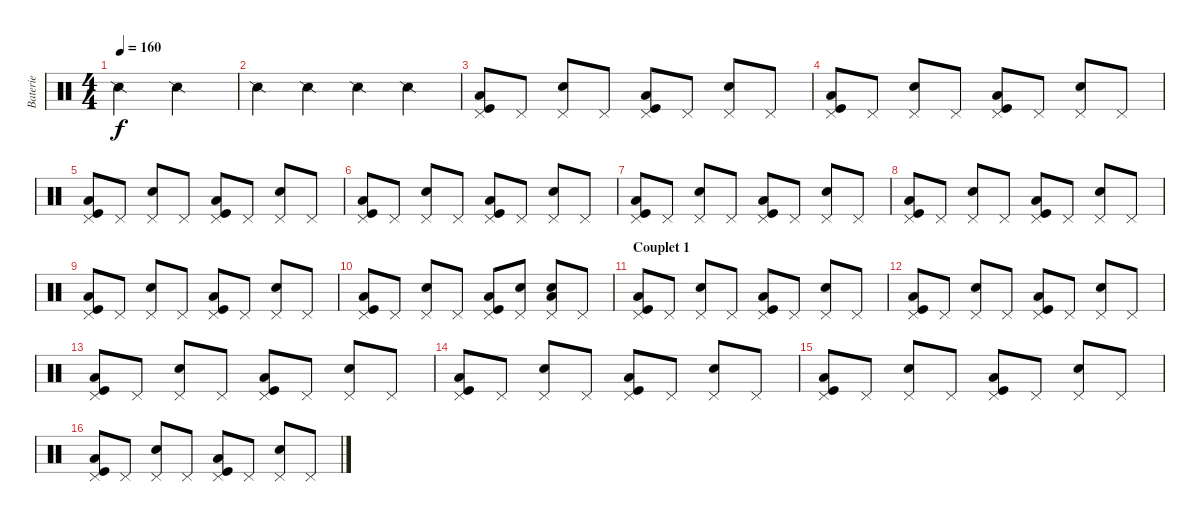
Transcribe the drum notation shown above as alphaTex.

\track ("Baterie" "Baterie") {instrument percussion}
\staff {score}
\articulation defaults
\ts (4 4)
\tempo 160
\clef neutral
\ks c "Snare (side stick) 2".2{dy f} "Snare (side stick) 2".2
|
"Snare (side stick) 2".4 "Snare (side stick) 2".4 "Snare (side stick) 2".4 "Snare (side stick) 2".4 |
("Pedal Hi-Hat (hit)" "Low Floor Tom (hit)" "Kick (hit)").8 "Pedal Hi-Hat (hit)".8 ("Pedal Hi-Hat (hit)" "Electric Snare (hit)").8 "Pedal Hi-Hat (hit)".8 ("Pedal Hi-Hat (hit)" "Low Floor Tom (hit)" "Kick (hit)").8 "Pedal Hi-Hat (hit)".8 ("Pedal Hi-Hat (hit)" "Electric Snare (hit)").8 "Pedal Hi-Hat (hit)".8 |
("Pedal Hi-Hat (hit)" "Low Floor Tom (hit)" "Kick (hit)").8 "Pedal Hi-Hat (hit)".8 ("Pedal Hi-Hat (hit)" "Electric Snare (hit)").8 "Pedal Hi-Hat (hit)".8 ("Pedal Hi-Hat (hit)" "Low Floor Tom (hit)" "Kick (hit)").8 "Pedal Hi-Hat (hit)".8 ("Pedal Hi-Hat (hit)" "Electric Snare (hit)").8 "Pedal Hi-Hat (hit)".8 |
("Pedal Hi-Hat (hit)" "Low Floor Tom (hit)" "Kick (hit)").8 "Pedal Hi-Hat (hit)".8 ("Pedal Hi-Hat (hit)" "Electric Snare (hit)").8 "Pedal Hi-Hat (hit)".8 ("Pedal Hi-Hat (hit)" "Low Floor Tom (hit)" "Kick (hit)").8 "Pedal Hi-Hat (hit)".8 ("Pedal Hi-Hat (hit)" "Electric Snare (hit)").8 "Pedal Hi-Hat (hit)".8 |
("Pedal Hi-Hat (hit)" "Low Floor Tom (hit)" "Kick (hit)").8 "Pedal Hi-Hat (hit)".8 ("Pedal Hi-Hat (hit)" "Electric Snare (hit)").8 "Pedal Hi-Hat (hit)".8 ("Pedal Hi-Hat (hit)" "Low Floor Tom (hit)" "Kick (hit)").8 "Pedal Hi-Hat (hit)".8 ("Pedal Hi-Hat (hit)" "Electric Snare (hit)").8 "Pedal Hi-Hat (hit)".8 |
("Pedal Hi-Hat (hit)" "Low Floor Tom (hit)" "Kick (hit)").8 "Pedal Hi-Hat (hit)".8 ("Pedal Hi-Hat (hit)" "Electric Snare (hit)").8 "Pedal Hi-Hat (hit)".8 ("Pedal Hi-Hat (hit)" "Low Floor Tom (hit)" "Kick (hit)").8 "Pedal Hi-Hat (hit)".8 ("Pedal Hi-Hat (hit)" "Electric Snare (hit)").8 "Pedal Hi-Hat (hit)".8 |
("Pedal Hi-Hat (hit)" "Low Floor Tom (hit)" "Kick (hit)").8 "Pedal Hi-Hat (hit)".8 ("Pedal Hi-Hat (hit)" "Electric Snare (hit)").8 "Pedal Hi-Hat (hit)".8 ("Pedal Hi-Hat (hit)" "Low Floor Tom (hit)" "Kick (hit)").8 "Pedal Hi-Hat (hit)".8 ("Pedal Hi-Hat (hit)" "Electric Snare (hit)").8 "Pedal Hi-Hat (hit)".8 |
("Pedal Hi-Hat (hit)" "Low Floor Tom (hit)" "Kick (hit)").8 "Pedal Hi-Hat (hit)".8 ("Pedal Hi-Hat (hit)" "Electric Snare (hit)").8 "Pedal Hi-Hat (hit)".8 ("Pedal Hi-Hat (hit)" "Low Floor Tom (hit)" "Kick (hit)").8 "Pedal Hi-Hat (hit)".8 ("Pedal Hi-Hat (hit)" "Electric Snare (hit)").8 "Pedal Hi-Hat (hit)".8 |
("Pedal Hi-Hat (hit)" "Low Floor Tom (hit)" "Kick (hit)").8 "Pedal Hi-Hat (hit)".8 ("Pedal Hi-Hat (hit)" "Electric Snare (hit)").8 "Pedal Hi-Hat (hit)".8 ("Pedal Hi-Hat (hit)" "Low Floor Tom (hit)" "Kick (hit)").8 ("Pedal Hi-Hat (hit)" "Electric Snare (hit)").8 ("Pedal Hi-Hat (hit)" "Electric Snare (hit)" "Low Floor Tom (hit)").8 "Pedal Hi-Hat (hit)".8 |
\section ("" "Couplet 1")
("Pedal Hi-Hat (hit)" "Low Floor Tom (hit)" "Kick (hit)").8 "Pedal Hi-Hat (hit)".8 ("Pedal Hi-Hat (hit)" "Electric Snare (hit)").8 "Pedal Hi-Hat (hit)".8 ("Pedal Hi-Hat (hit)" "Low Floor Tom (hit)" "Kick (hit)").8 "Pedal Hi-Hat (hit)".8 ("Pedal Hi-Hat (hit)" "Electric Snare (hit)").8 "Pedal Hi-Hat (hit)".8 |
("Pedal Hi-Hat (hit)" "Low Floor Tom (hit)" "Kick (hit)").8 "Pedal Hi-Hat (hit)".8 ("Pedal Hi-Hat (hit)" "Electric Snare (hit)").8 "Pedal Hi-Hat (hit)".8 ("Pedal Hi-Hat (hit)" "Low Floor Tom (hit)" "Kick (hit)").8 "Pedal Hi-Hat (hit)".8 ("Pedal Hi-Hat (hit)" "Electric Snare (hit)").8 "Pedal Hi-Hat (hit)".8 |
("Pedal Hi-Hat (hit)" "Low Floor Tom (hit)" "Kick (hit)").8 "Pedal Hi-Hat (hit)".8 ("Pedal Hi-Hat (hit)" "Electric Snare (hit)").8 "Pedal Hi-Hat (hit)".8 ("Pedal Hi-Hat (hit)" "Low Floor Tom (hit)" "Kick (hit)").8 "Pedal Hi-Hat (hit)".8 ("Pedal Hi-Hat (hit)" "Electric Snare (hit)").8 "Pedal Hi-Hat (hit)".8 |
("Pedal Hi-Hat (hit)" "Low Floor Tom (hit)" "Kick (hit)").8 "Pedal Hi-Hat (hit)".8 ("Pedal Hi-Hat (hit)" "Electric Snare (hit)").8 "Pedal Hi-Hat (hit)".8 ("Pedal Hi-Hat (hit)" "Low Floor Tom (hit)" "Kick (hit)").8 "Pedal Hi-Hat (hit)".8 ("Pedal Hi-Hat (hit)" "Electric Snare (hit)").8 "Pedal Hi-Hat (hit)".8 |
("Pedal Hi-Hat (hit)" "Low Floor Tom (hit)" "Kick (hit)").8 "Pedal Hi-Hat (hit)".8 ("Pedal Hi-Hat (hit)" "Electric Snare (hit)").8 "Pedal Hi-Hat (hit)".8 ("Pedal Hi-Hat (hit)" "Low Floor Tom (hit)" "Kick (hit)").8 "Pedal Hi-Hat (hit)".8 ("Pedal Hi-Hat (hit)" "Electric Snare (hit)").8 "Pedal Hi-Hat (hit)".8 |
("Pedal Hi-Hat (hit)" "Low Floor Tom (hit)" "Kick (hit)").8 "Pedal Hi-Hat (hit)".8 ("Pedal Hi-Hat (hit)" "Electric Snare (hit)").8 "Pedal Hi-Hat (hit)".8 ("Pedal Hi-Hat (hit)" "Low Floor Tom (hit)" "Kick (hit)").8 "Pedal Hi-Hat (hit)".8 ("Pedal Hi-Hat (hit)" "Electric Snare (hit)").8 "Pedal Hi-Hat (hit)".8
